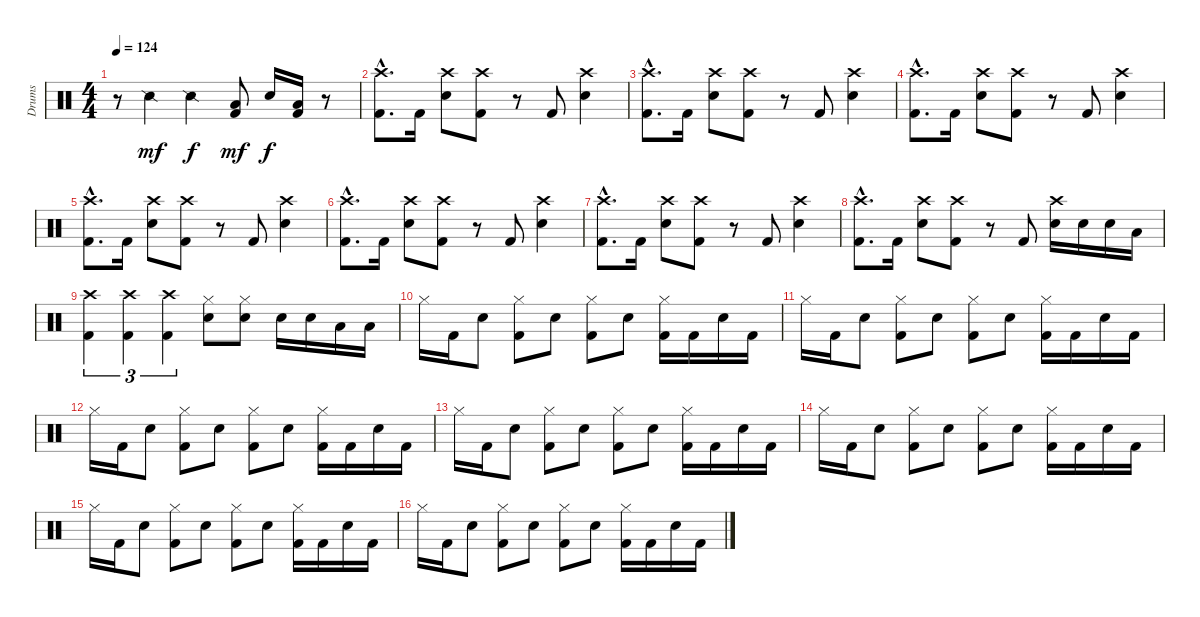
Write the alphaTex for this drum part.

\track ("Drums" "Drums") {instrument percussion}
\staff {score}
\articulation defaults
\ts (4 4)
\tempo 124
\clef neutral
\ks c
r.8{dy mf} "Snare (side stick) 2".4 "Snare (side stick) 2".4{dy f} ("Low Floor Tom (hit)" "Kick (hit) 2").8{dy mf} "Snare (hit) 2".16{dy f} ("Low Floor Tom (hit)" "Kick (hit) 2").16 r.8 |
("Crash high (hit)"{hac} "Kick (hit) 2"{hac}).8{d} "Kick (hit) 2".16 ("Crash high (hit)" "Electric Snare (hit)").8 ("Crash high (hit)" "Kick (hit) 2").8 r.8 "Kick (hit) 2".8 ("Crash high (hit)" "Electric Snare (hit)").4 |
("Crash high (hit)"{hac} "Kick (hit) 2"{hac}).8{d} "Kick (hit) 2".16 ("Crash high (hit)" "Electric Snare (hit)").8 ("Crash high (hit)" "Kick (hit) 2").8 r.8 "Kick (hit) 2".8 ("Crash high (hit)" "Electric Snare (hit)").4 |
("Crash high (hit)"{hac} "Kick (hit) 2"{hac}).8{d} "Kick (hit) 2".16 ("Crash high (hit)" "Electric Snare (hit)").8 ("Crash high (hit)" "Kick (hit) 2").8 r.8 "Kick (hit) 2".8 ("Crash high (hit)" "Electric Snare (hit)").4 |
("Crash high (hit)"{hac} "Kick (hit) 2"{hac}).8{d} "Kick (hit) 2".16 ("Crash high (hit)" "Electric Snare (hit)").8 ("Crash high (hit)" "Kick (hit) 2").8 r.8 "Kick (hit) 2".8 ("Crash high (hit)" "Electric Snare (hit)").4 |
("Crash high (hit)"{hac} "Kick (hit) 2"{hac}).8{d} "Kick (hit) 2".16 ("Crash high (hit)" "Electric Snare (hit)").8 ("Crash high (hit)" "Kick (hit) 2").8 r.8 "Kick (hit) 2".8 ("Crash high (hit)" "Electric Snare (hit)").4 |
("Crash high (hit)"{hac} "Kick (hit) 2"{hac}).8{d} "Kick (hit) 2".16 ("Crash high (hit)" "Electric Snare (hit)").8 ("Crash high (hit)" "Kick (hit) 2").8 r.8 "Kick (hit) 2".8 ("Crash high (hit)" "Electric Snare (hit)").4 |
("Crash high (hit)"{hac} "Kick (hit) 2"{hac}).8{d} "Kick (hit) 2".16 ("Crash high (hit)" "Electric Snare (hit)").8 ("Crash high (hit)" "Kick (hit) 2").8 r.8 "Kick (hit) 2".8 ("Crash high (hit)" "Electric Snare (hit)").16 "Electric Snare (hit)".16 "Electric Snare (hit)".16 "Low Tom (hit)".16 |
("Crash high (hit)" "Kick (hit) 2").4{tu (3 2)} ("Crash high (hit)" "Kick (hit) 2").4{tu (3 2)} ("Crash high (hit)" "Kick (hit) 2").4{tu (3 2)} ("Hi-Hat (closed)" "Electric Snare (hit)").8 ("Hi-Hat (closed)" "Electric Snare (hit)").8 "Electric Snare (hit)".16 "Electric Snare (hit)".16 "Low Floor Tom (hit)".16 "Low Floor Tom (hit)".16 |
"Hi-Hat (closed)".16 "Kick (hit) 2".16 "Electric Snare (hit)".8 ("Hi-Hat (closed)" "Kick (hit) 2").8 "Electric Snare (hit)".8 ("Hi-Hat (closed)" "Kick (hit) 2").8 "Electric Snare (hit)".8 ("Hi-Hat (closed)" "Kick (hit) 2").16 "Kick (hit) 2".16 "Electric Snare (hit)".16 "Kick (hit) 2".16 |
"Hi-Hat (closed)".16 "Kick (hit) 2".16 "Electric Snare (hit)".8 ("Hi-Hat (closed)" "Kick (hit) 2").8 "Electric Snare (hit)".8 ("Hi-Hat (closed)" "Kick (hit) 2").8 "Electric Snare (hit)".8 ("Hi-Hat (closed)" "Kick (hit) 2").16 "Kick (hit) 2".16 "Electric Snare (hit)".16 "Kick (hit) 2".16 |
"Hi-Hat (closed)".16 "Kick (hit) 2".16 "Electric Snare (hit)".8 ("Hi-Hat (closed)" "Kick (hit) 2").8 "Electric Snare (hit)".8 ("Hi-Hat (closed)" "Kick (hit) 2").8 "Electric Snare (hit)".8 ("Hi-Hat (closed)" "Kick (hit) 2").16 "Kick (hit) 2".16 "Electric Snare (hit)".16 "Kick (hit) 2".16 |
"Hi-Hat (closed)".16 "Kick (hit) 2".16 "Electric Snare (hit)".8 ("Hi-Hat (closed)" "Kick (hit) 2").8 "Electric Snare (hit)".8 ("Hi-Hat (closed)" "Kick (hit) 2").8 "Electric Snare (hit)".8 ("Hi-Hat (closed)" "Kick (hit) 2").16 "Kick (hit) 2".16 "Electric Snare (hit)".16 "Kick (hit) 2".16 |
"Hi-Hat (closed)".16 "Kick (hit) 2".16 "Electric Snare (hit)".8 ("Hi-Hat (closed)" "Kick (hit) 2").8 "Electric Snare (hit)".8 ("Hi-Hat (closed)" "Kick (hit) 2").8 "Electric Snare (hit)".8 ("Hi-Hat (closed)" "Kick (hit) 2").16 "Kick (hit) 2".16 "Electric Snare (hit)".16 "Kick (hit) 2".16 |
"Hi-Hat (closed)".16 "Kick (hit) 2".16 "Electric Snare (hit)".8 ("Hi-Hat (closed)" "Kick (hit) 2").8 "Electric Snare (hit)".8 ("Hi-Hat (closed)" "Kick (hit) 2").8 "Electric Snare (hit)".8 ("Hi-Hat (closed)" "Kick (hit) 2").16 "Kick (hit) 2".16 "Electric Snare (hit)".16 "Kick (hit) 2".16 |
"Hi-Hat (closed)".16 "Kick (hit) 2".16 "Electric Snare (hit)".8 ("Hi-Hat (closed)" "Kick (hit) 2").8 "Electric Snare (hit)".8 ("Hi-Hat (closed)" "Kick (hit) 2").8 "Electric Snare (hit)".8 ("Hi-Hat (closed)" "Kick (hit) 2").16 "Kick (hit) 2".16 "Electric Snare (hit)".16 "Kick (hit) 2".16
